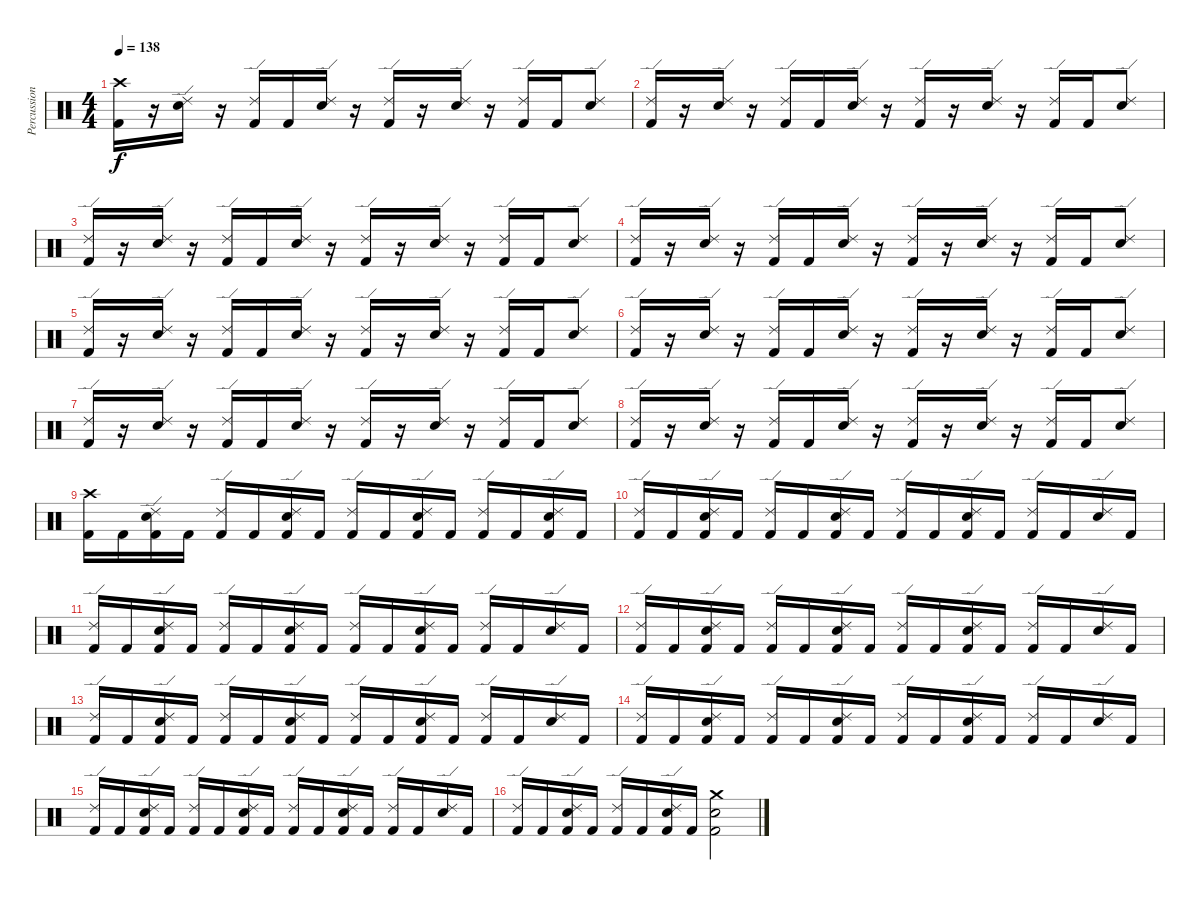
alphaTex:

\track ("Percussion" "Percussion") {instrument percussion}
\staff {score}
\articulation defaults
\ts (4 4)
\tempo 138
\clef neutral
\ks c
("Crash high (hit)" "Kick (hit) 2").16{dy f} r.16 ("Ride (edge) 2" "Electric Snare (hit)").16 r.16 ("Ride (edge) 2" "Kick (hit) 2").16 "Kick (hit) 2".16 ("Ride (edge) 2" "Electric Snare (hit)").16 r.16 ("Ride (edge) 2" "Kick (hit) 2").16 r.16 ("Ride (edge) 2" "Electric Snare (hit)").16 r.16 ("Ride (edge) 2" "Kick (hit) 2").16 "Kick (hit) 2".16 ("Ride (edge) 2" "Electric Snare (hit)").8 |
("Ride (edge) 2" "Kick (hit) 2").16 r.16 ("Ride (edge) 2" "Electric Snare (hit)").16 r.16 ("Ride (edge) 2" "Kick (hit) 2").16 "Kick (hit) 2".16 ("Ride (edge) 2" "Electric Snare (hit)").16 r.16 ("Ride (edge) 2" "Kick (hit) 2").16 r.16 ("Ride (edge) 2" "Electric Snare (hit)").16 r.16 ("Ride (edge) 2" "Kick (hit) 2").16 "Kick (hit) 2".16 ("Ride (edge) 2" "Electric Snare (hit)").8 |
("Ride (edge) 2" "Kick (hit) 2").16 r.16 ("Ride (edge) 2" "Electric Snare (hit)").16 r.16 ("Ride (edge) 2" "Kick (hit) 2").16 "Kick (hit) 2".16 ("Ride (edge) 2" "Electric Snare (hit)").16 r.16 ("Ride (edge) 2" "Kick (hit) 2").16 r.16 ("Ride (edge) 2" "Electric Snare (hit)").16 r.16 ("Ride (edge) 2" "Kick (hit) 2").16 "Kick (hit) 2".16 ("Ride (edge) 2" "Electric Snare (hit)").8 |
("Ride (edge) 2" "Kick (hit) 2").16 r.16 ("Ride (edge) 2" "Electric Snare (hit)").16 r.16 ("Ride (edge) 2" "Kick (hit) 2").16 "Kick (hit) 2".16 ("Ride (edge) 2" "Electric Snare (hit)").16 r.16 ("Ride (edge) 2" "Kick (hit) 2").16 r.16 ("Ride (edge) 2" "Electric Snare (hit)").16 r.16 ("Ride (edge) 2" "Kick (hit) 2").16 "Kick (hit) 2".16 ("Ride (edge) 2" "Electric Snare (hit)").8 |
("Ride (edge) 2" "Kick (hit) 2").16 r.16 ("Ride (edge) 2" "Electric Snare (hit)").16 r.16 ("Ride (edge) 2" "Kick (hit) 2").16 "Kick (hit) 2".16 ("Ride (edge) 2" "Electric Snare (hit)").16 r.16 ("Ride (edge) 2" "Kick (hit) 2").16 r.16 ("Ride (edge) 2" "Electric Snare (hit)").16 r.16 ("Ride (edge) 2" "Kick (hit) 2").16 "Kick (hit) 2".16 ("Ride (edge) 2" "Electric Snare (hit)").8 |
("Ride (edge) 2" "Kick (hit) 2").16 r.16 ("Ride (edge) 2" "Electric Snare (hit)").16 r.16 ("Ride (edge) 2" "Kick (hit) 2").16 "Kick (hit) 2".16 ("Ride (edge) 2" "Electric Snare (hit)").16 r.16 ("Ride (edge) 2" "Kick (hit) 2").16 r.16 ("Ride (edge) 2" "Electric Snare (hit)").16 r.16 ("Ride (edge) 2" "Kick (hit) 2").16 "Kick (hit) 2".16 ("Ride (edge) 2" "Electric Snare (hit)").8 |
("Ride (edge) 2" "Kick (hit) 2").16 r.16 ("Ride (edge) 2" "Electric Snare (hit)").16 r.16 ("Ride (edge) 2" "Kick (hit) 2").16 "Kick (hit) 2".16 ("Ride (edge) 2" "Electric Snare (hit)").16 r.16 ("Ride (edge) 2" "Kick (hit) 2").16 r.16 ("Ride (edge) 2" "Electric Snare (hit)").16 r.16 ("Ride (edge) 2" "Kick (hit) 2").16 "Kick (hit) 2".16 ("Ride (edge) 2" "Electric Snare (hit)").8 |
("Ride (edge) 2" "Kick (hit) 2").16 r.16 ("Ride (edge) 2" "Electric Snare (hit)").16 r.16 ("Ride (edge) 2" "Kick (hit) 2").16 "Kick (hit) 2".16 ("Ride (edge) 2" "Electric Snare (hit)").16 r.16 ("Ride (edge) 2" "Kick (hit) 2").16 r.16 ("Ride (edge) 2" "Electric Snare (hit)").16 r.16 ("Ride (edge) 2" "Kick (hit) 2").16 "Kick (hit) 2".16 ("Ride (edge) 2" "Electric Snare (hit)").8 |
("Crash high (hit)" "Kick (hit) 2").16 "Kick (hit) 2".16 ("Ride (edge) 2" "Electric Snare (hit)" "Kick (hit) 2").16 "Kick (hit) 2".16 ("Ride (edge) 2" "Kick (hit) 2").16 "Kick (hit) 2".16 ("Ride (edge) 2" "Electric Snare (hit)" "Kick (hit) 2").16 "Kick (hit) 2".16 ("Ride (edge) 2" "Kick (hit) 2").16 "Kick (hit) 2".16 ("Ride (edge) 2" "Electric Snare (hit)" "Kick (hit) 2").16 "Kick (hit) 2".16 ("Ride (edge) 2" "Kick (hit) 2").16 "Kick (hit) 2".16 ("Ride (edge) 2" "Electric Snare (hit)" "Kick (hit) 2").16 "Kick (hit) 2".16 |
("Ride (edge) 2" "Kick (hit) 2").16 "Kick (hit) 2".16 ("Ride (edge) 2" "Electric Snare (hit)" "Kick (hit) 2").16 "Kick (hit) 2".16 ("Ride (edge) 2" "Kick (hit) 2").16 "Kick (hit) 2".16 ("Ride (edge) 2" "Electric Snare (hit)" "Kick (hit) 2").16 "Kick (hit) 2".16 ("Ride (edge) 2" "Kick (hit) 2").16 "Kick (hit) 2".16 ("Ride (edge) 2" "Electric Snare (hit)" "Kick (hit) 2").16 "Kick (hit) 2".16 ("Ride (edge) 2" "Kick (hit) 2").16 "Kick (hit) 2".16 ("Ride (edge) 2" "Electric Snare (hit)").16 "Kick (hit) 2".16 |
("Ride (edge) 2" "Kick (hit) 2").16 "Kick (hit) 2".16 ("Ride (edge) 2" "Electric Snare (hit)" "Kick (hit) 2").16 "Kick (hit) 2".16 ("Ride (edge) 2" "Kick (hit) 2").16 "Kick (hit) 2".16 ("Ride (edge) 2" "Electric Snare (hit)" "Kick (hit) 2").16 "Kick (hit) 2".16 ("Ride (edge) 2" "Kick (hit) 2").16 "Kick (hit) 2".16 ("Ride (edge) 2" "Electric Snare (hit)" "Kick (hit) 2").16 "Kick (hit) 2".16 ("Ride (edge) 2" "Kick (hit) 2").16 "Kick (hit) 2".16 ("Ride (edge) 2" "Electric Snare (hit)").16 "Kick (hit) 2".16 |
("Ride (edge) 2" "Kick (hit) 2").16 "Kick (hit) 2".16 ("Ride (edge) 2" "Electric Snare (hit)" "Kick (hit) 2").16 "Kick (hit) 2".16 ("Ride (edge) 2" "Kick (hit) 2").16 "Kick (hit) 2".16 ("Ride (edge) 2" "Electric Snare (hit)" "Kick (hit) 2").16 "Kick (hit) 2".16 ("Ride (edge) 2" "Kick (hit) 2").16 "Kick (hit) 2".16 ("Ride (edge) 2" "Electric Snare (hit)" "Kick (hit) 2").16 "Kick (hit) 2".16 ("Ride (edge) 2" "Kick (hit) 2").16 "Kick (hit) 2".16 ("Ride (edge) 2" "Electric Snare (hit)").16 "Kick (hit) 2".16 |
("Ride (edge) 2" "Kick (hit) 2").16 "Kick (hit) 2".16 ("Ride (edge) 2" "Electric Snare (hit)" "Kick (hit) 2").16 "Kick (hit) 2".16 ("Ride (edge) 2" "Kick (hit) 2").16 "Kick (hit) 2".16 ("Ride (edge) 2" "Electric Snare (hit)" "Kick (hit) 2").16 "Kick (hit) 2".16 ("Ride (edge) 2" "Kick (hit) 2").16 "Kick (hit) 2".16 ("Ride (edge) 2" "Electric Snare (hit)" "Kick (hit) 2").16 "Kick (hit) 2".16 ("Ride (edge) 2" "Kick (hit) 2").16 "Kick (hit) 2".16 ("Ride (edge) 2" "Electric Snare (hit)").16 "Kick (hit) 2".16 |
("Ride (edge) 2" "Kick (hit) 2").16 "Kick (hit) 2".16 ("Ride (edge) 2" "Electric Snare (hit)" "Kick (hit) 2").16 "Kick (hit) 2".16 ("Ride (edge) 2" "Kick (hit) 2").16 "Kick (hit) 2".16 ("Ride (edge) 2" "Electric Snare (hit)" "Kick (hit) 2").16 "Kick (hit) 2".16 ("Ride (edge) 2" "Kick (hit) 2").16 "Kick (hit) 2".16 ("Ride (edge) 2" "Electric Snare (hit)" "Kick (hit) 2").16 "Kick (hit) 2".16 ("Ride (edge) 2" "Kick (hit) 2").16 "Kick (hit) 2".16 ("Ride (edge) 2" "Electric Snare (hit)").16 "Kick (hit) 2".16 |
("Ride (edge) 2" "Kick (hit) 2").16 "Kick (hit) 2".16 ("Ride (edge) 2" "Electric Snare (hit)" "Kick (hit) 2").16 "Kick (hit) 2".16 ("Ride (edge) 2" "Kick (hit) 2").16 "Kick (hit) 2".16 ("Ride (edge) 2" "Electric Snare (hit)" "Kick (hit) 2").16 "Kick (hit) 2".16 ("Ride (edge) 2" "Kick (hit) 2").16 "Kick (hit) 2".16 ("Ride (edge) 2" "Electric Snare (hit)" "Kick (hit) 2").16 "Kick (hit) 2".16 ("Ride (edge) 2" "Kick (hit) 2").16 "Kick (hit) 2".16 ("Ride (edge) 2" "Electric Snare (hit)").16 "Kick (hit) 2".16 |
("Ride (edge) 2" "Kick (hit) 2").16 "Kick (hit) 2".16 ("Ride (edge) 2" "Electric Snare (hit)" "Kick (hit) 2").16 "Kick (hit) 2".16 ("Ride (edge) 2" "Kick (hit) 2").16 "Kick (hit) 2".16 ("Ride (edge) 2" "Electric Snare (hit)" "Kick (hit) 2").16 "Kick (hit) 2".16 ("Crash medium (hit)" "Electric Snare (hit)" "Kick (hit) 2").2
